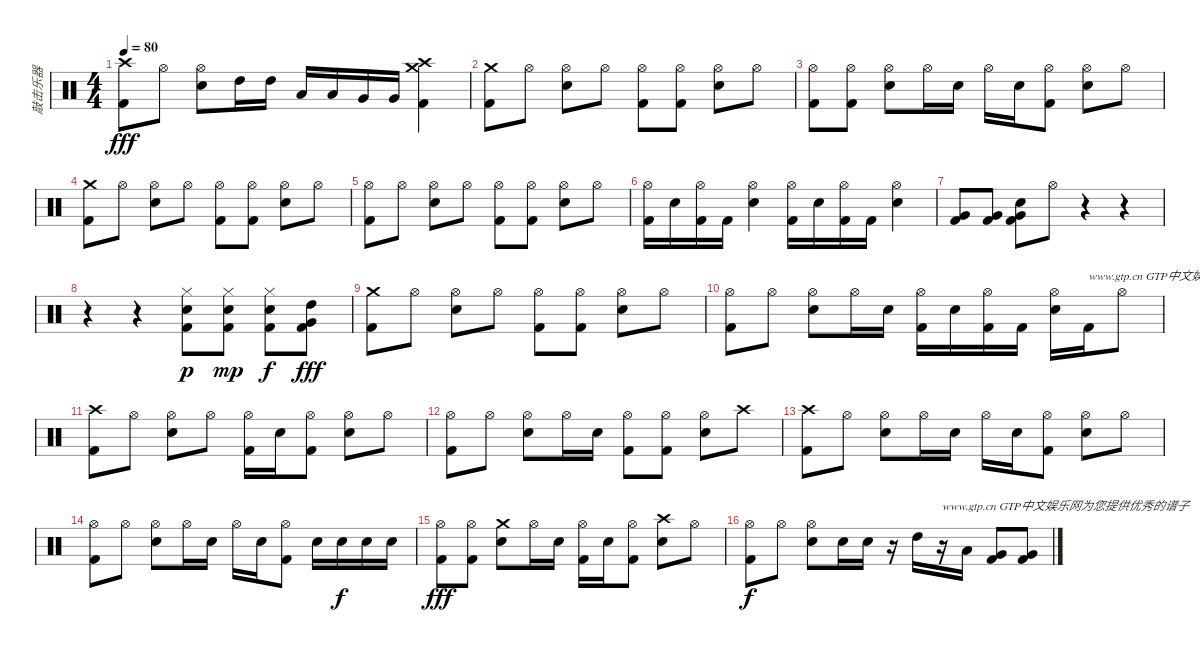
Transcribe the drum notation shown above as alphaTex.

\track ("敲击乐器" "敲击乐器") {instrument percussion}
\staff {score}
\articulation defaults
\ts (4 4)
\tempo 80
\clef neutral
\ks c
("Crash high (hit)" "Kick (hit) 2").8{dy fff} "Hi-Hat (open)".8 ("Hi-Hat (open)" "Electric Snare (hit)").8 "High Tom (hit)".16 "High Tom (hit)".16 "Low Tom (hit)".16 "Low Tom (hit)".16 "Very Low Tom (hit)".16 "Very Low Tom (hit)".16 ("Crash medium (hit)" "Crash high (hit)" "Kick (hit) 2").4 |
("Crash medium (hit)" "Kick (hit) 2").8 "Hi-Hat (open)".8 ("Hi-Hat (open)" "Electric Snare (hit)").8 "Hi-Hat (open)".8 ("Hi-Hat (open)" "Kick (hit) 2").8 ("Hi-Hat (open)" "Kick (hit) 2").8 ("Hi-Hat (open)" "Electric Snare (hit)").8 "Hi-Hat (open)".8 |
("Hi-Hat (open)" "Kick (hit) 2").8 ("Hi-Hat (open)" "Kick (hit) 2").8 ("Hi-Hat (open)" "Electric Snare (hit)").8 "Hi-Hat (open)".16 "Electric Snare (hit)".16 "Hi-Hat (open)".16 "Electric Snare (hit)".16 ("Hi-Hat (open)" "Kick (hit) 2").8 ("Hi-Hat (open)" "Electric Snare (hit)").8 "Hi-Hat (open)".8 |
("Crash medium (hit)" "Kick (hit) 2").8 "Hi-Hat (open)".8 ("Hi-Hat (open)" "Electric Snare (hit)").8 "Hi-Hat (open)".8 ("Hi-Hat (open)" "Kick (hit) 2").8 ("Hi-Hat (open)" "Kick (hit) 2").8 ("Hi-Hat (open)" "Electric Snare (hit)").8 "Hi-Hat (open)".8 |
("Hi-Hat (open)" "Kick (hit) 2").8 "Hi-Hat (open)".8 ("Hi-Hat (open)" "Electric Snare (hit)").8 "Hi-Hat (open)".8 ("Hi-Hat (open)" "Kick (hit) 2").8 ("Hi-Hat (open)" "Kick (hit) 2").8 ("Hi-Hat (open)" "Electric Snare (hit)").8 "Hi-Hat (open)".8 |
("Hi-Hat (open)" "Kick (hit) 2").16 "Electric Snare (hit)".16 ("Hi-Hat (open)" "Kick (hit) 2").16 "Kick (hit) 2".16 ("Hi-Hat (open)" "Electric Snare (hit)").4 ("Hi-Hat (open)" "Kick (hit) 2").16 "Electric Snare (hit)".16 ("Hi-Hat (open)" "Kick (hit) 2").16 "Kick (hit) 2".16 ("Hi-Hat (open)" "Electric Snare (hit)").4 |
("Very Low Tom (hit)" "Kick (hit) 2").8 ("Very Low Tom (hit)" "Kick (hit) 2").8 ("Electric Snare (hit)" "Very Low Tom (hit)" "Kick (hit) 2").8 "Hi-Hat (open)".8 r.4 r.4 |
r.4 r.4 ("Hi-Hat (closed)" "Electric Snare (hit)" "Kick (hit) 2").8{dy p} ("Hi-Hat (closed)" "Electric Snare (hit)" "Kick (hit) 2").8{dy mp} ("Hi-Hat (closed)" "Electric Snare (hit)" "Kick (hit) 2").8{dy f} ("High Tom (hit)" "Very Low Tom (hit)" "Kick (hit) 2").8{dy fff} |
("Crash medium (hit)" "Kick (hit) 2").8 "Hi-Hat (open)".8 ("Hi-Hat (open)" "Electric Snare (hit)").8 "Hi-Hat (open)".8 ("Hi-Hat (open)" "Kick (hit) 2").8 ("Hi-Hat (open)" "Kick (hit) 2").8 ("Hi-Hat (open)" "Electric Snare (hit)").8 "Hi-Hat (open)".8 |
("Hi-Hat (open)" "Kick (hit) 2").8 "Hi-Hat (open)".8 ("Hi-Hat (open)" "Electric Snare (hit)").8 "Hi-Hat (open)".16 "Electric Snare (hit)".16 ("Hi-Hat (open)" "Kick (hit) 2").16 "Electric Snare (hit)".16 ("Hi-Hat (open)" "Kick (hit) 2").16 "Kick (hit) 2".16 ("Hi-Hat (open)" "Electric Snare (hit)").16 "Kick (hit) 2".16{txt "www.gtp.cn GTP中文娱乐网为您提供优秀的谱子"} "Hi-Hat (open)".8 |
("Crash high (hit)" "Kick (hit) 2").8 "Hi-Hat (open)".8 ("Hi-Hat (open)" "Electric Snare (hit)").8 "Hi-Hat (open)".8 ("Hi-Hat (open)" "Kick (hit) 2").16 "Electric Snare (hit)".16 ("Hi-Hat (open)" "Kick (hit) 2").8 ("Hi-Hat (open)" "Electric Snare (hit)").8 "Hi-Hat (open)".8 |
("Hi-Hat (open)" "Kick (hit) 2").8 "Hi-Hat (open)".8 ("Hi-Hat (open)" "Electric Snare (hit)").8 "Hi-Hat (open)".16 "Electric Snare (hit)".16 ("Hi-Hat (open)" "Kick (hit) 2").8 ("Hi-Hat (open)" "Kick (hit) 2").8 ("Hi-Hat (open)" "Electric Snare (hit)").8 "Crash high (hit)".8 |
("Crash high (hit)" "Kick (hit) 2").8 "Hi-Hat (open)".8 ("Hi-Hat (open)" "Electric Snare (hit)").8 "Hi-Hat (open)".16 "Electric Snare (hit)".16 "Hi-Hat (open)".16 "Electric Snare (hit)".16 ("Hi-Hat (open)" "Kick (hit) 2").8 ("Hi-Hat (open)" "Electric Snare (hit)").8 "Hi-Hat (open)".8 |
("Hi-Hat (open)" "Kick (hit) 2").8 "Hi-Hat (open)".8 ("Hi-Hat (open)" "Electric Snare (hit)").8 "Hi-Hat (open)".16 "Electric Snare (hit)".16 "Hi-Hat (open)".16 "Electric Snare (hit)".16 ("Hi-Hat (open)" "Kick (hit) 2").8 "Electric Snare (hit)".16 "Electric Snare (hit)".16{dy f} "Electric Snare (hit)".16 "Electric Snare (hit)".16 |
("Hi-Hat (open)" "Kick (hit) 2").8{dy fff} ("Hi-Hat (open)" "Kick (hit) 2").8 ("Crash medium (hit)" "Electric Snare (hit)").8 "Hi-Hat (open)".16 "Electric Snare (hit)".16 ("Hi-Hat (open)" "Kick (hit) 2").16 "Electric Snare (hit)".16 ("Hi-Hat (open)" "Kick (hit) 2").8 ("Crash high (hit)" "Electric Snare (hit)").8 "Hi-Hat (open)".8 |
("Hi-Hat (open)" "Kick (hit) 2").8{dy f} "Hi-Hat (open)".8 ("Hi-Hat (open)" "Electric Snare (hit)").8 "Electric Snare (hit)".16 "Electric Snare (hit)".16 r.16 "High Tom (hit)".16 r.16{txt "www.gtp.cn GTP中文娱乐网为您提供优秀的谱子"} "Low Tom (hit)".16 ("Very Low Tom (hit)" "Kick (hit) 2").8 ("Very Low Tom (hit)" "Kick (hit) 2").8
